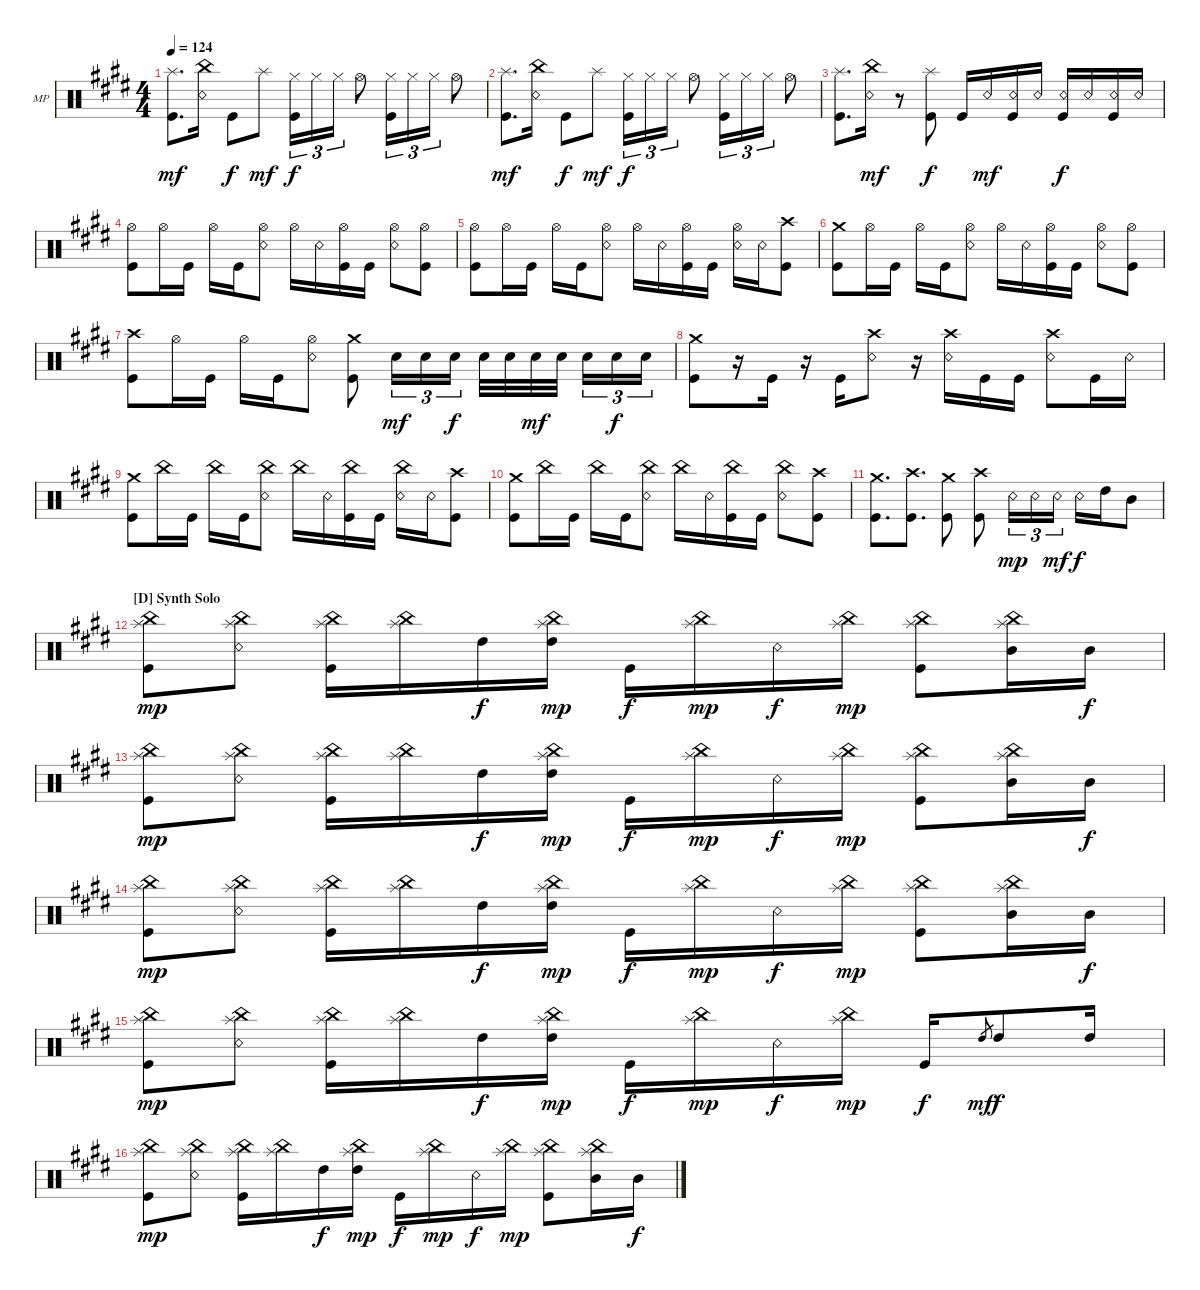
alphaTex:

\defaultSystemsLayout 4
\bracketExtendMode groupsimilarinstruments
\firstSystemTrackNameOrientation horizontal
\otherSystemsTrackNameOrientation horizontal
\track ("Mike Portnoy" "MP") {instrument percussion}
\staff {score}
\articulation defaults
\ts (4 4)
\tempo 124
\clef neutral
\ks e
("Splash (hit)" "Kick (hit)").8{d dy mf} ("China (hit)" "Snare (rim shot)").16 "Kick (hit)".8{dy f} "Splash (hit)".8{dy mf} ("Hi-Hat (closed)" "Kick (hit)").16{tu (3 2) dy f} "Hi-Hat (closed)".16{tu (3 2)} "Hi-Hat (closed)".16{tu (3 2)} "Hi-Hat (open)".8 ("Hi-Hat (closed)" "Kick (hit)").16{tu (3 2)} "Hi-Hat (closed)".16{tu (3 2)} "Hi-Hat (closed)".16{tu (3 2)} "Hi-Hat (open)".8 |
("Splash (hit)" "Kick (hit)").8{d dy mf} ("China (hit)" "Snare (rim shot)").16 "Kick (hit)".8{dy f} "Splash (hit)".8{dy mf} ("Hi-Hat (closed)" "Kick (hit)").16{tu (3 2) dy f} "Hi-Hat (closed)".16{tu (3 2)} "Hi-Hat (closed)".16{tu (3 2)} "Hi-Hat (open)".8 ("Hi-Hat (closed)" "Kick (hit)").16{tu (3 2)} "Hi-Hat (closed)".16{tu (3 2)} "Hi-Hat (closed)".16{tu (3 2)} "Hi-Hat (open)".8 |
("Splash (hit)" "Kick (hit)").8{d} ("China (hit)" "Snare (rim shot)").16{dy mf} r.8 ("Splash (hit)" "Kick (hit)").8{dy f} "Kick (hit)".16 "Snare (rim shot)".16{dy mf} ("Snare (rim shot)" "Kick (hit)").16 "Snare (rim shot)".16 ("Snare (rim shot)" "Kick (hit)").16{dy f} "Snare (rim shot)".16 ("Snare (rim shot)" "Kick (hit)").16 "Snare (rim shot)".16 |
("Hi-Hat (open)" "Kick (hit)").8 "Hi-Hat (open)".16 "Kick (hit)".16 "Hi-Hat (open)".16 "Kick (hit)".16 ("Hi-Hat (open)" "Snare (rim shot)").8 "Hi-Hat (open)".16 "Snare (rim shot)".16 ("Hi-Hat (open)" "Kick (hit)").16 "Kick (hit)".16 ("Hi-Hat (open)" "Snare (rim shot)").8 ("Hi-Hat (open)" "Kick (hit)").8 |
("Hi-Hat (open)" "Kick (hit)").8 "Hi-Hat (open)".16 "Kick (hit)".16 "Hi-Hat (open)".16 "Kick (hit)".16 ("Hi-Hat (open)" "Snare (rim shot)").8 "Hi-Hat (open)".16 "Snare (rim shot)".16 ("Hi-Hat (open)" "Kick (hit)").16 "Kick (hit)".16 ("Hi-Hat (open)" "Snare (rim shot)").16 "Snare (rim shot)".16 ("Crash high (hit)" "Kick (hit)").8 |
("Crash medium (hit)" "Kick (hit)").8 "Hi-Hat (open)".16 "Kick (hit)".16 "Hi-Hat (open)".16 "Kick (hit)".16 ("Hi-Hat (open)" "Snare (rim shot)").8 "Hi-Hat (open)".16 "Snare (rim shot)".16 ("Hi-Hat (open)" "Kick (hit)").16 "Kick (hit)".16 ("Hi-Hat (open)" "Snare (rim shot)").8 ("Hi-Hat (open)" "Kick (hit)").8 |
("Crash high (hit)" "Kick (hit)").8 "Hi-Hat (open)".16 "Kick (hit)".16 "Hi-Hat (open)".16 "Kick (hit)".16 ("Hi-Hat (open)" "Snare (rim shot)").8 ("Crash medium (hit)" "Kick (hit)").8 "Snare (hit) 2".16{tu (3 2) dy mf} "Snare (hit) 2".16{tu (3 2)} "Snare (hit) 2".16{tu (3 2) dy f} "Snare (hit) 2".32 "Snare (hit) 2".32 "Snare (hit) 2".32{dy mf} "Snare (hit) 2".32 "Snare (hit) 2".16{tu (3 2)} "Snare (hit) 2".16{tu (3 2) dy f} "Snare (hit) 2".16{tu (3 2)} |
("Crash medium (hit)" "Kick (hit)").8 r.16 "Kick (hit)".16 r.16 "Kick (hit)".16 ("Snare (rim shot)" "Crash high (hit)").8 r.16 ("Snare (rim shot)" "Crash high (hit)").16 "Kick (hit)".16 "Kick (hit)".16 ("Snare (rim shot)" "Crash high (hit)").8 "Kick (hit)".16 "Snare (rim shot)".16 |
("Crash medium (hit)" "Kick (hit)").8 "China (hit)".16 "Kick (hit)".16 "China (hit)".16 "Kick (hit)".16 ("China (hit)" "Snare (rim shot)").8 "China (hit)".16 "Snare (rim shot)".16 ("China (hit)" "Kick (hit)").16 "Kick (hit)".16 ("China (hit)" "Snare (rim shot)").16 "Snare (rim shot)".16 ("Crash high (hit)" "Kick (hit)").8 |
("Crash medium (hit)" "Kick (hit)").8 "China (hit)".16 "Kick (hit)".16 "China (hit)".16 "Kick (hit)".16 ("China (hit)" "Snare (rim shot)").8 "China (hit)".16 "Snare (rim shot)".16 ("China (hit)" "Kick (hit)").16 "Kick (hit)".16 ("China (hit)" "Snare (rim shot)").8 ("Crash high (hit)" "Kick (hit)").8 |
\section ("" "")
("Crash medium (hit)" "Kick (hit)").8{d} ("Crash high (hit)" "Kick (hit)").8{d} ("Crash medium (hit)" "Kick (hit)").8 ("Crash high (hit)" "Kick (hit)").8 "Snare (rim shot)".16{tu (3 2) dy mp} "Snare (rim shot)".16{tu (3 2)} "Snare (rim shot)".16{tu (3 2) dy mf} "Snare (rim shot)".16{dy f} "High Tom (hit)".16 "Mid Tom (hit)".8 |
\section ("D" "Synth Solo")
("Splash (hit)" "China (hit)" "Kick (hit)").8{dy mp} ("Splash (hit)" "China (hit)" "Snare (rim shot)").8 ("Splash (hit)" "China (hit)" "Kick (hit)").16 ("Splash (hit)" "China (hit)").16 "High Tom (hit)".16{dy f} ("Splash (hit)" "China (hit)" "High Tom (hit)").16{dy mp} "Kick (hit)".16{dy f} ("Splash (hit)" "China (hit)").16{dy mp} "Snare (rim shot)".16{dy f} ("Splash (hit)" "China (hit)").16{dy mp} ("Splash (hit)" "China (hit)" "Kick (hit)").8 ("Splash (hit)" "China (hit)" "Mid Tom (hit)").16 "Mid Tom (hit)".16{dy f} |
("Splash (hit)" "China (hit)" "Kick (hit)").8{dy mp} ("Splash (hit)" "China (hit)" "Snare (rim shot)").8 ("Splash (hit)" "China (hit)" "Kick (hit)").16 ("Splash (hit)" "China (hit)").16 "High Tom (hit)".16{dy f} ("Splash (hit)" "China (hit)" "High Tom (hit)").16{dy mp} "Kick (hit)".16{dy f} ("Splash (hit)" "China (hit)").16{dy mp} "Snare (rim shot)".16{dy f} ("Splash (hit)" "China (hit)").16{dy mp} ("Splash (hit)" "China (hit)" "Kick (hit)").8 ("Splash (hit)" "China (hit)" "Mid Tom (hit)").16 "Mid Tom (hit)".16{dy f} |
("Splash (hit)" "China (hit)" "Kick (hit)").8{dy mp} ("Splash (hit)" "China (hit)" "Snare (rim shot)").8 ("Splash (hit)" "China (hit)" "Kick (hit)").16 ("Splash (hit)" "China (hit)").16 "High Tom (hit)".16{dy f} ("Splash (hit)" "China (hit)" "High Tom (hit)").16{dy mp} "Kick (hit)".16{dy f} ("Splash (hit)" "China (hit)").16{dy mp} "Snare (rim shot)".16{dy f} ("Splash (hit)" "China (hit)").16{dy mp} ("Splash (hit)" "China (hit)" "Kick (hit)").8 ("Splash (hit)" "China (hit)" "Mid Tom (hit)").16 "Mid Tom (hit)".16{dy f} |
("Splash (hit)" "China (hit)" "Kick (hit)").8{dy mp} ("Splash (hit)" "China (hit)" "Snare (rim shot)").8 ("Splash (hit)" "China (hit)" "Kick (hit)").16 ("Splash (hit)" "China (hit)").16 "High Tom (hit)".16{dy f} ("Splash (hit)" "China (hit)" "High Tom (hit)").16{dy mp} "Kick (hit)".16{dy f} ("Splash (hit)" "China (hit)").16{dy mp} "Snare (rim shot)".16{dy f} ("Splash (hit)" "China (hit)").16{dy mp} "Kick (hit)".16{dy f} "High Tom (hit)".8{gr dy mf} "High Tom (hit)".8{dy f} "High Tom (hit)".16 |
("Splash (hit)" "China (hit)" "Kick (hit)").8{dy mp} ("Splash (hit)" "China (hit)" "Snare (rim shot)").8 ("Splash (hit)" "China (hit)" "Kick (hit)").16 ("Splash (hit)" "China (hit)").16 "High Tom (hit)".16{dy f} ("Splash (hit)" "China (hit)" "High Tom (hit)").16{dy mp} "Kick (hit)".16{dy f} ("Splash (hit)" "China (hit)").16{dy mp} "Snare (rim shot)".16{dy f} ("Splash (hit)" "China (hit)").16{dy mp} ("Splash (hit)" "China (hit)" "Kick (hit)").8 ("Splash (hit)" "China (hit)" "Mid Tom (hit)").16 "Mid Tom (hit)".16{dy f}
